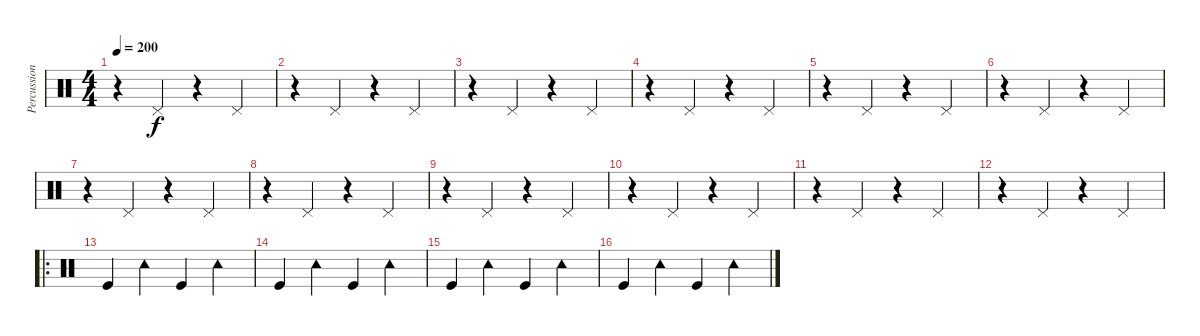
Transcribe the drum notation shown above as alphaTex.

\track ("Percussions" "Percussion") {instrument percussion}
\staff {score}
\articulation defaults
\ts (4 4)
\tempo 200
\clef neutral
\ks c
r.4{dy f} "Pedal Hi-Hat (hit)".4 r.4 "Pedal Hi-Hat (hit)".4 |
r.4 "Pedal Hi-Hat (hit)".4 r.4 "Pedal Hi-Hat (hit)".4 |
r.4 "Pedal Hi-Hat (hit)".4 r.4 "Pedal Hi-Hat (hit)".4 |
r.4 "Pedal Hi-Hat (hit)".4 r.4 "Pedal Hi-Hat (hit)".4 |
r.4 "Pedal Hi-Hat (hit)".4 r.4 "Pedal Hi-Hat (hit)".4 |
r.4 "Pedal Hi-Hat (hit)".4 r.4 "Pedal Hi-Hat (hit)".4 |
r.4 "Pedal Hi-Hat (hit)".4 r.4 "Pedal Hi-Hat (hit)".4 |
r.4 "Pedal Hi-Hat (hit)".4 r.4 "Pedal Hi-Hat (hit)".4 |
r.4 "Pedal Hi-Hat (hit)".4 r.4 "Pedal Hi-Hat (hit)".4 |
r.4 "Pedal Hi-Hat (hit)".4 r.4 "Pedal Hi-Hat (hit)".4 |
r.4 "Pedal Hi-Hat (hit)".4 r.4 "Pedal Hi-Hat (hit)".4 |
r.4 "Pedal Hi-Hat (hit)".4 r.4 "Pedal Hi-Hat (hit)".4 |
\ro "Kick (hit)".4 "Tambourine (hit)".4 "Kick (hit)".4 "Tambourine (hit)".4
|
"Kick (hit)".4 "Tambourine (hit)".4 "Kick (hit)".4 "Tambourine (hit)".4 |
"Kick (hit)".4 "Tambourine (hit)".4 "Kick (hit)".4 "Tambourine (hit)".4 |
"Kick (hit)".4 "Tambourine (hit)".4 "Kick (hit)".4 "Tambourine (hit)".4
